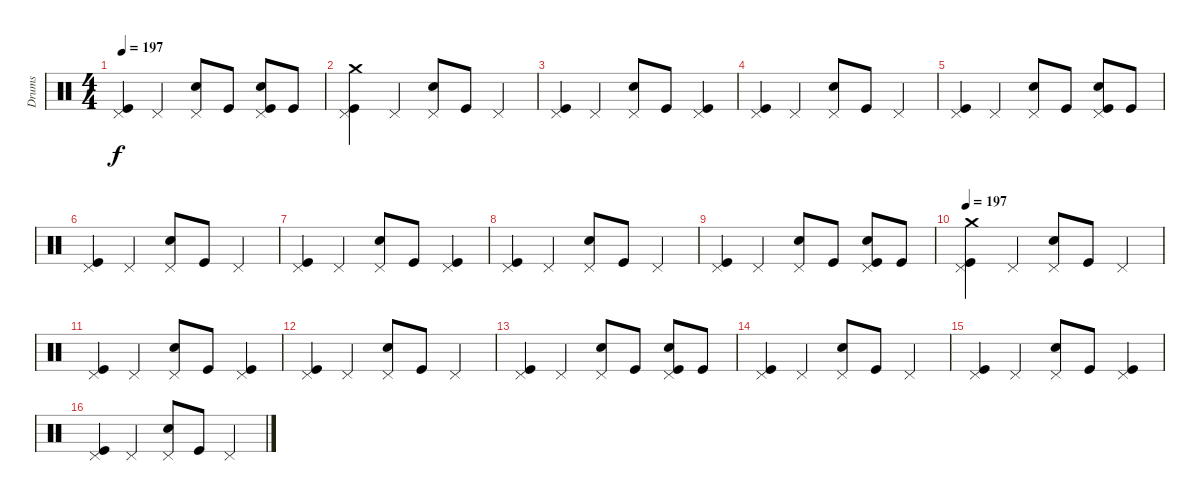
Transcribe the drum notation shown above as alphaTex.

\track ("Drums" "Drums") {instrument percussion}
\staff {score}
\articulation defaults
\ts (4 4)
\tempo 197
\clef neutral
\ks c
("Pedal Hi-Hat (hit)" "Kick (hit)").4{dy f} "Pedal Hi-Hat (hit)".4 ("Pedal Hi-Hat (hit)" "Snare (hit) 2").8 "Kick (hit)".8 ("Pedal Hi-Hat (hit)" "Snare (hit) 2" "Kick (hit)").8 "Kick (hit)".8 |
("Crash medium (hit)" "Pedal Hi-Hat (hit)" "Kick (hit)").4{volume 16} "Pedal Hi-Hat (hit)".4 ("Pedal Hi-Hat (hit)" "Snare (hit) 2").8 "Kick (hit)".8 "Pedal Hi-Hat (hit)".4 |
("Pedal Hi-Hat (hit)" "Kick (hit)").4 "Pedal Hi-Hat (hit)".4 ("Pedal Hi-Hat (hit)" "Snare (hit) 2").8 "Kick (hit)".8 ("Pedal Hi-Hat (hit)" "Kick (hit)").4 |
("Pedal Hi-Hat (hit)" "Kick (hit)").4 "Pedal Hi-Hat (hit)".4 ("Pedal Hi-Hat (hit)" "Snare (hit) 2").8 "Kick (hit)".8 "Pedal Hi-Hat (hit)".4 |
("Pedal Hi-Hat (hit)" "Kick (hit)").4 "Pedal Hi-Hat (hit)".4 ("Pedal Hi-Hat (hit)" "Snare (hit) 2").8 "Kick (hit)".8 ("Pedal Hi-Hat (hit)" "Snare (hit) 2" "Kick (hit)").8 "Kick (hit)".8 |
("Pedal Hi-Hat (hit)" "Kick (hit)").4 "Pedal Hi-Hat (hit)".4 ("Pedal Hi-Hat (hit)" "Snare (hit) 2").8 "Kick (hit)".8 "Pedal Hi-Hat (hit)".4 |
("Pedal Hi-Hat (hit)" "Kick (hit)").4 "Pedal Hi-Hat (hit)".4 ("Pedal Hi-Hat (hit)" "Snare (hit) 2").8 "Kick (hit)".8 ("Pedal Hi-Hat (hit)" "Kick (hit)").4 |
("Pedal Hi-Hat (hit)" "Kick (hit)").4 "Pedal Hi-Hat (hit)".4 ("Pedal Hi-Hat (hit)" "Snare (hit) 2").8 "Kick (hit)".8 "Pedal Hi-Hat (hit)".4 |
("Pedal Hi-Hat (hit)" "Kick (hit)").4 "Pedal Hi-Hat (hit)".4 ("Pedal Hi-Hat (hit)" "Snare (hit) 2").8 "Kick (hit)".8 ("Pedal Hi-Hat (hit)" "Snare (hit) 2" "Kick (hit)").8 "Kick (hit)".8 |
\tempo 197
("Crash medium (hit)" "Pedal Hi-Hat (hit)" "Kick (hit)").4{volume 16} "Pedal Hi-Hat (hit)".4 ("Pedal Hi-Hat (hit)" "Snare (hit) 2").8 "Kick (hit)".8 "Pedal Hi-Hat (hit)".4 |
("Pedal Hi-Hat (hit)" "Kick (hit)").4 "Pedal Hi-Hat (hit)".4 ("Pedal Hi-Hat (hit)" "Snare (hit) 2").8 "Kick (hit)".8 ("Pedal Hi-Hat (hit)" "Kick (hit)").4 |
("Pedal Hi-Hat (hit)" "Kick (hit)").4 "Pedal Hi-Hat (hit)".4 ("Pedal Hi-Hat (hit)" "Snare (hit) 2").8 "Kick (hit)".8 "Pedal Hi-Hat (hit)".4 |
("Pedal Hi-Hat (hit)" "Kick (hit)").4 "Pedal Hi-Hat (hit)".4 ("Pedal Hi-Hat (hit)" "Snare (hit) 2").8 "Kick (hit)".8 ("Pedal Hi-Hat (hit)" "Snare (hit) 2" "Kick (hit)").8 "Kick (hit)".8 |
("Pedal Hi-Hat (hit)" "Kick (hit)").4 "Pedal Hi-Hat (hit)".4 ("Pedal Hi-Hat (hit)" "Snare (hit) 2").8 "Kick (hit)".8 "Pedal Hi-Hat (hit)".4 |
("Pedal Hi-Hat (hit)" "Kick (hit)").4 "Pedal Hi-Hat (hit)".4 ("Pedal Hi-Hat (hit)" "Snare (hit) 2").8 "Kick (hit)".8 ("Pedal Hi-Hat (hit)" "Kick (hit)").4 |
("Pedal Hi-Hat (hit)" "Kick (hit)").4 "Pedal Hi-Hat (hit)".4 ("Pedal Hi-Hat (hit)" "Snare (hit) 2").8 "Kick (hit)".8 "Pedal Hi-Hat (hit)".4
